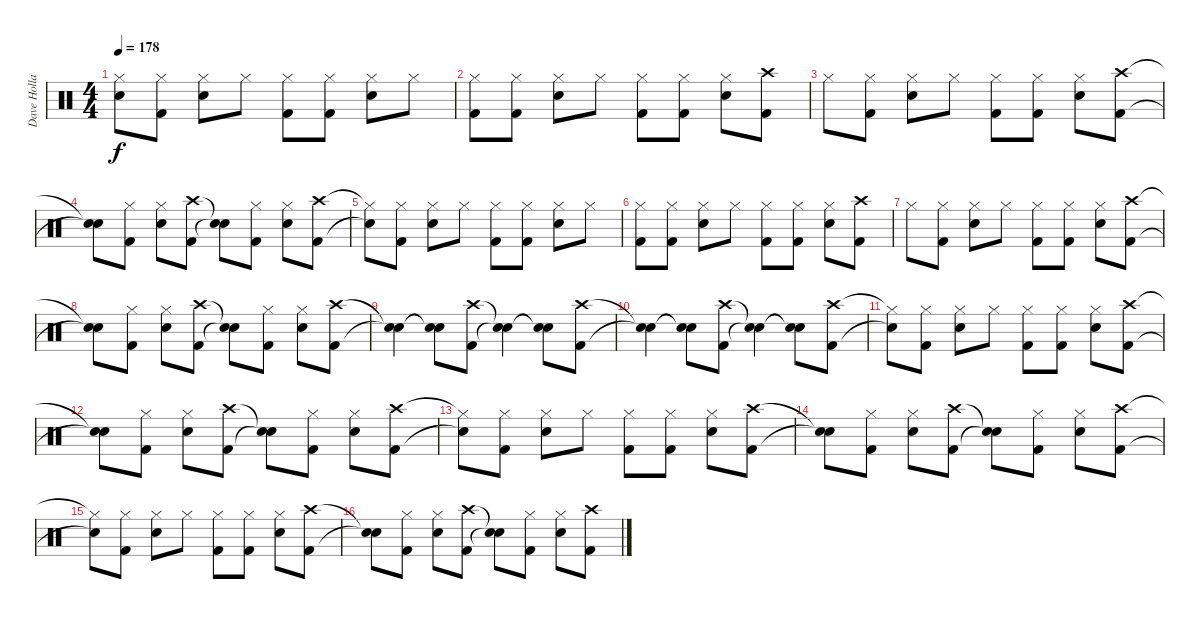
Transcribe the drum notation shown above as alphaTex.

\track ("Dave Holland" "Dave Holla") {instrument percussion}
\staff {score}
\articulation defaults
\ts (4 4)
\tempo 178
\clef neutral
\ks c
("Hi-Hat (closed)"{t} "Snare (hit)"{t}).8{dy f} ("Hi-Hat (closed)" "Kick (hit) 2").8 ("Hi-Hat (closed)" "Snare (hit) 2").8 "Hi-Hat (closed)".8 ("Hi-Hat (closed)" "Kick (hit) 2").8 ("Hi-Hat (closed)" "Kick (hit) 2").8 ("Hi-Hat (closed)" "Snare (hit) 2").8 "Hi-Hat (closed)".8 |
("Hi-Hat (closed)" "Kick (hit) 2").8 ("Hi-Hat (closed)" "Kick (hit) 2").8 ("Hi-Hat (closed)" "Snare (hit) 2").8 "Hi-Hat (closed)".8 ("Hi-Hat (closed)" "Kick (hit) 2").8 ("Hi-Hat (closed)" "Kick (hit) 2").8 ("Hi-Hat (closed)" "Snare (hit) 2").8 ("Crash high (hit)" "Kick (hit) 2").8 |
"Hi-Hat (closed)".8 ("Hi-Hat (closed)" "Kick (hit) 2").8 ("Hi-Hat (closed)" "Snare (hit) 2").8 "Hi-Hat (closed)".8 ("Hi-Hat (closed)" "Kick (hit) 2").8 ("Hi-Hat (closed)" "Kick (hit) 2").8 ("Hi-Hat (closed)" "Snare (hit) 2").8 ("Crash high (hit)" "Kick (hit) 2").8 |
("Snare (hit)"{t} "Snare (hit)"{t}).8 ("Hi-Hat (closed)" "Kick (hit) 2").8 ("Hi-Hat (closed)" "Snare (hit) 2").8 ("Crash high (hit)" "Kick (hit) 2").8 ("Snare (hit)"{t} "Snare (hit)"{t}).8 ("Hi-Hat (closed)" "Kick (hit) 2").8 ("Hi-Hat (closed)" "Snare (hit) 2").8 ("Crash high (hit)" "Kick (hit) 2").8 |
("Hi-Hat (closed)"{t} "Snare (hit)"{t}).8 ("Hi-Hat (closed)" "Kick (hit) 2").8 ("Hi-Hat (closed)" "Snare (hit) 2").8 "Hi-Hat (closed)".8 ("Hi-Hat (closed)" "Kick (hit) 2").8 ("Hi-Hat (closed)" "Kick (hit) 2").8 ("Hi-Hat (closed)" "Snare (hit) 2").8 "Hi-Hat (closed)".8 |
("Hi-Hat (closed)" "Kick (hit) 2").8 ("Hi-Hat (closed)" "Kick (hit) 2").8 ("Hi-Hat (closed)" "Snare (hit) 2").8 "Hi-Hat (closed)".8 ("Hi-Hat (closed)" "Kick (hit) 2").8 ("Hi-Hat (closed)" "Kick (hit) 2").8 ("Hi-Hat (closed)" "Snare (hit) 2").8 ("Crash high (hit)" "Kick (hit) 2").8 |
"Hi-Hat (closed)".8 ("Hi-Hat (closed)" "Kick (hit) 2").8 ("Hi-Hat (closed)" "Snare (hit) 2").8 "Hi-Hat (closed)".8 ("Hi-Hat (closed)" "Kick (hit) 2").8 ("Hi-Hat (closed)" "Kick (hit) 2").8 ("Hi-Hat (closed)" "Snare (hit) 2").8 ("Crash high (hit)" "Kick (hit) 2").8 |
("Snare (hit)"{t} "Snare (hit)"{t}).8 ("Hi-Hat (closed)" "Kick (hit) 2").8 ("Hi-Hat (closed)" "Snare (hit) 2").8 ("Crash high (hit)" "Kick (hit) 2").8 ("Snare (hit)"{t} "Snare (hit)"{t}).8 ("Hi-Hat (closed)" "Kick (hit) 2").8 ("Hi-Hat (closed)" "Snare (hit) 2").8 ("Crash high (hit)" "Kick (hit) 2").8 |
("Snare (hit)"{t} "Snare (hit)"{t}).4 ("Snare (hit)"{t} "Snare (hit)"{t}).8 ("Crash high (hit)" "Kick (hit) 2").8 ("Snare (hit)"{t} "Snare (hit)"{t}).4 ("Snare (hit)"{t} "Snare (hit)"{t}).8 ("Crash high (hit)" "Kick (hit) 2").8 |
("Snare (hit)"{t} "Snare (hit)"{t}).4 ("Snare (hit)"{t} "Snare (hit)"{t}).8 ("Crash high (hit)" "Kick (hit) 2").8 ("Snare (hit)"{t} "Snare (hit)"{t}).4 ("Snare (hit)"{t} "Snare (hit)"{t}).8 ("Crash high (hit)" "Kick (hit) 2").8 |
("Hi-Hat (closed)"{t} "Snare (hit)"{t}).8 ("Hi-Hat (closed)" "Kick (hit) 2").8 ("Hi-Hat (closed)" "Snare (hit) 2").8 "Hi-Hat (closed)".8 ("Hi-Hat (closed)" "Kick (hit) 2").8 ("Hi-Hat (closed)" "Kick (hit) 2").8 ("Hi-Hat (closed)" "Snare (hit) 2").8 ("Crash high (hit)" "Kick (hit) 2").8 |
("Snare (hit)"{t} "Snare (hit)"{t}).8 ("Hi-Hat (closed)" "Kick (hit) 2").8 ("Hi-Hat (closed)" "Snare (hit) 2").8 ("Crash high (hit)" "Kick (hit) 2").8 ("Snare (hit)"{t} "Snare (hit)"{t}).8 ("Hi-Hat (closed)" "Kick (hit) 2").8 ("Hi-Hat (closed)" "Snare (hit) 2").8 ("Crash high (hit)" "Kick (hit) 2").8 |
("Hi-Hat (closed)"{t} "Snare (hit)"{t}).8 ("Hi-Hat (closed)" "Kick (hit) 2").8 ("Hi-Hat (closed)" "Snare (hit) 2").8 "Hi-Hat (closed)".8 ("Hi-Hat (closed)" "Kick (hit) 2").8 ("Hi-Hat (closed)" "Kick (hit) 2").8 ("Hi-Hat (closed)" "Snare (hit) 2").8 ("Crash high (hit)" "Kick (hit) 2").8 |
("Snare (hit)"{t} "Snare (hit)"{t}).8 ("Hi-Hat (closed)" "Kick (hit) 2").8 ("Hi-Hat (closed)" "Snare (hit) 2").8 ("Crash high (hit)" "Kick (hit) 2").8 ("Snare (hit)"{t} "Snare (hit)"{t}).8 ("Hi-Hat (closed)" "Kick (hit) 2").8 ("Hi-Hat (closed)" "Snare (hit) 2").8 ("Crash high (hit)" "Kick (hit) 2").8 |
("Hi-Hat (closed)"{t} "Snare (hit)"{t}).8 ("Hi-Hat (closed)" "Kick (hit) 2").8 ("Hi-Hat (closed)" "Snare (hit) 2").8 "Hi-Hat (closed)".8 ("Hi-Hat (closed)" "Kick (hit) 2").8 ("Hi-Hat (closed)" "Kick (hit) 2").8 ("Hi-Hat (closed)" "Snare (hit) 2").8 ("Crash high (hit)" "Kick (hit) 2").8 |
("Snare (hit)"{t} "Snare (hit)"{t}).8 ("Hi-Hat (closed)" "Kick (hit) 2").8 ("Hi-Hat (closed)" "Snare (hit) 2").8 ("Crash high (hit)" "Kick (hit) 2").8 ("Snare (hit)"{t} "Snare (hit)"{t}).8 ("Hi-Hat (closed)" "Kick (hit) 2").8 ("Hi-Hat (closed)" "Snare (hit) 2").8 ("Crash high (hit)" "Kick (hit) 2").8
